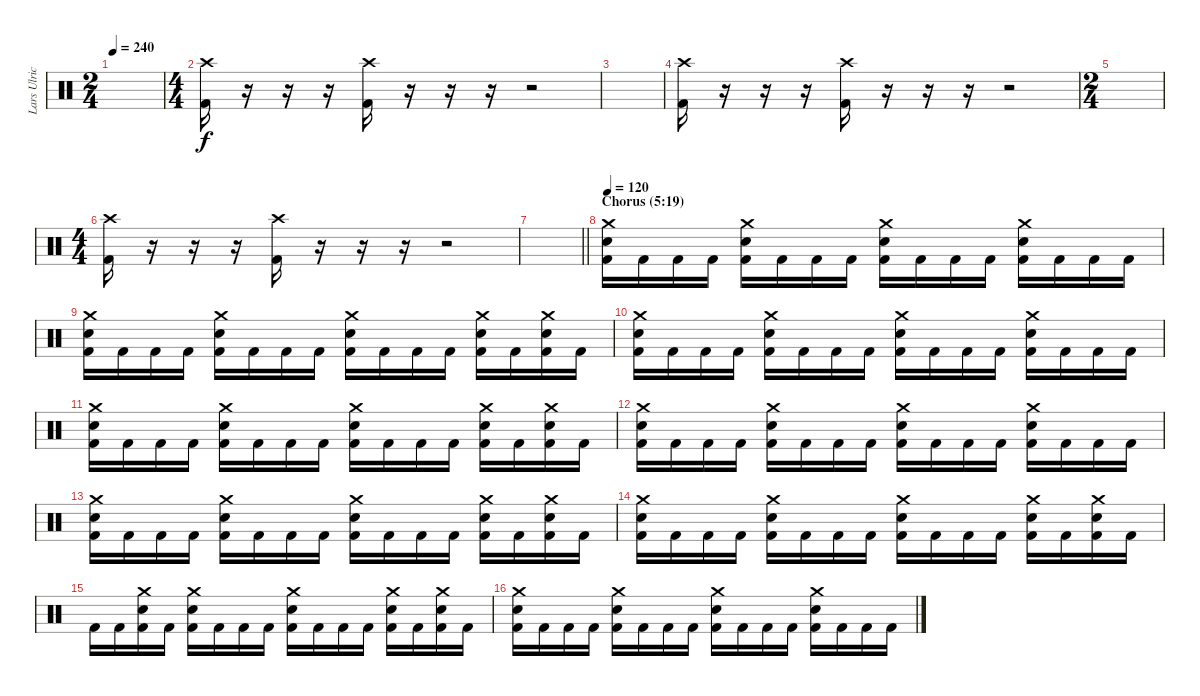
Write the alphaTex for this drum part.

\track ("Lars Ulrich" "Lars Ulric") {instrument percussion}
\staff {score}
\articulation defaults
\ts (2 4)
\tempo 240
\clef neutral
\ks c
|
\ts (4 4)
("Crash high (hit)" "Kick (hit) 2").16{volume 16} r.16 r.16 r.16{volume 0} ("Crash high (hit)" "Kick (hit) 2").16{volume 16} r.16 r.16 r.16{volume 0} r.2 |
|
("Crash high (hit)" "Kick (hit) 2").16{volume 16} r.16 r.16 r.16{volume 0} ("Crash high (hit)" "Kick (hit) 2").16{volume 16} r.16 r.16 r.16{volume 0} r.2 |
\ts (2 4)
|
\ts (4 4)
("Crash high (hit)" "Kick (hit) 2").16{volume 16} r.16 r.16 r.16{volume 0} ("Crash high (hit)" "Kick (hit) 2").16{volume 16} r.16 r.16 r.16{volume 0} r.2 |
\barLineRight lightlight
|
\section ("" "Chorus (5:19)")
\tempo 120
("Electric Snare (hit)" "Crash medium (hit)" "Kick (hit) 2").16{volume 16} "Kick (hit) 2".16 "Kick (hit) 2".16 "Kick (hit) 2".16 ("Electric Snare (hit)" "Crash medium (hit)" "Kick (hit) 2").16 "Kick (hit) 2".16 "Kick (hit) 2".16 "Kick (hit) 2".16 ("Electric Snare (hit)" "Crash medium (hit)" "Kick (hit) 2").16 "Kick (hit) 2".16 "Kick (hit) 2".16 "Kick (hit) 2".16 ("Electric Snare (hit)" "Crash medium (hit)" "Kick (hit) 2").16 "Kick (hit) 2".16 "Kick (hit) 2".16 "Kick (hit) 2".16 |
("Electric Snare (hit)" "Crash medium (hit)" "Kick (hit) 2").16 "Kick (hit) 2".16 "Kick (hit) 2".16 "Kick (hit) 2".16 ("Electric Snare (hit)" "Crash medium (hit)" "Kick (hit) 2").16 "Kick (hit) 2".16 "Kick (hit) 2".16 "Kick (hit) 2".16 ("Electric Snare (hit)" "Crash medium (hit)" "Kick (hit) 2").16 "Kick (hit) 2".16 "Kick (hit) 2".16 "Kick (hit) 2".16 ("Electric Snare (hit)" "Crash medium (hit)" "Kick (hit) 2").16 "Kick (hit) 2".16 ("Electric Snare (hit)" "Crash medium (hit)" "Kick (hit) 2").16 "Kick (hit) 2".16 |
("Electric Snare (hit)" "Crash medium (hit)" "Kick (hit) 2").16 "Kick (hit) 2".16 "Kick (hit) 2".16 "Kick (hit) 2".16 ("Electric Snare (hit)" "Crash medium (hit)" "Kick (hit) 2").16 "Kick (hit) 2".16 "Kick (hit) 2".16 "Kick (hit) 2".16 ("Electric Snare (hit)" "Crash medium (hit)" "Kick (hit) 2").16 "Kick (hit) 2".16 "Kick (hit) 2".16 "Kick (hit) 2".16 ("Electric Snare (hit)" "Crash medium (hit)" "Kick (hit) 2").16 "Kick (hit) 2".16 "Kick (hit) 2".16 "Kick (hit) 2".16 |
("Electric Snare (hit)" "Crash medium (hit)" "Kick (hit) 2").16 "Kick (hit) 2".16 "Kick (hit) 2".16 "Kick (hit) 2".16 ("Electric Snare (hit)" "Crash medium (hit)" "Kick (hit) 2").16 "Kick (hit) 2".16 "Kick (hit) 2".16 "Kick (hit) 2".16 ("Electric Snare (hit)" "Crash medium (hit)" "Kick (hit) 2").16 "Kick (hit) 2".16 "Kick (hit) 2".16 "Kick (hit) 2".16 ("Electric Snare (hit)" "Crash medium (hit)" "Kick (hit) 2").16 "Kick (hit) 2".16 ("Electric Snare (hit)" "Crash medium (hit)" "Kick (hit) 2").16 "Kick (hit) 2".16 |
("Electric Snare (hit)" "Crash medium (hit)" "Kick (hit) 2").16 "Kick (hit) 2".16 "Kick (hit) 2".16 "Kick (hit) 2".16 ("Electric Snare (hit)" "Crash medium (hit)" "Kick (hit) 2").16 "Kick (hit) 2".16 "Kick (hit) 2".16 "Kick (hit) 2".16 ("Electric Snare (hit)" "Crash medium (hit)" "Kick (hit) 2").16 "Kick (hit) 2".16 "Kick (hit) 2".16 "Kick (hit) 2".16 ("Electric Snare (hit)" "Crash medium (hit)" "Kick (hit) 2").16 "Kick (hit) 2".16 "Kick (hit) 2".16 "Kick (hit) 2".16 |
("Electric Snare (hit)" "Crash medium (hit)" "Kick (hit) 2").16 "Kick (hit) 2".16 "Kick (hit) 2".16 "Kick (hit) 2".16 ("Electric Snare (hit)" "Crash medium (hit)" "Kick (hit) 2").16 "Kick (hit) 2".16 "Kick (hit) 2".16 "Kick (hit) 2".16 ("Electric Snare (hit)" "Crash medium (hit)" "Kick (hit) 2").16 "Kick (hit) 2".16 "Kick (hit) 2".16 "Kick (hit) 2".16 ("Electric Snare (hit)" "Crash medium (hit)" "Kick (hit) 2").16 "Kick (hit) 2".16 ("Electric Snare (hit)" "Crash medium (hit)" "Kick (hit) 2").16 "Kick (hit) 2".16 |
("Electric Snare (hit)" "Crash medium (hit)" "Kick (hit) 2").16 "Kick (hit) 2".16 "Kick (hit) 2".16 "Kick (hit) 2".16 ("Electric Snare (hit)" "Crash medium (hit)" "Kick (hit) 2").16 "Kick (hit) 2".16 "Kick (hit) 2".16 "Kick (hit) 2".16 ("Electric Snare (hit)" "Crash medium (hit)" "Kick (hit) 2").16 "Kick (hit) 2".16 "Kick (hit) 2".16 "Kick (hit) 2".16 ("Electric Snare (hit)" "Crash medium (hit)" "Kick (hit) 2").16 "Kick (hit) 2".16 ("Electric Snare (hit)" "Crash medium (hit)" "Kick (hit) 2").16 "Kick (hit) 2".16 |
"Kick (hit) 2".16 "Kick (hit) 2".16 ("Electric Snare (hit)" "Crash medium (hit)" "Kick (hit) 2").16 "Kick (hit) 2".16 ("Electric Snare (hit)" "Crash medium (hit)" "Kick (hit) 2").16 "Kick (hit) 2".16 "Kick (hit) 2".16 "Kick (hit) 2".16 ("Electric Snare (hit)" "Crash medium (hit)" "Kick (hit) 2").16 "Kick (hit) 2".16 "Kick (hit) 2".16 "Kick (hit) 2".16 ("Electric Snare (hit)" "Crash medium (hit)" "Kick (hit) 2").16 "Kick (hit) 2".16 ("Electric Snare (hit)" "Crash medium (hit)" "Kick (hit) 2").16 "Kick (hit) 2".16 |
("Electric Snare (hit)" "Crash medium (hit)" "Kick (hit) 2").16 "Kick (hit) 2".16 "Kick (hit) 2".16 "Kick (hit) 2".16 ("Electric Snare (hit)" "Crash medium (hit)" "Kick (hit) 2").16 "Kick (hit) 2".16 "Kick (hit) 2".16 "Kick (hit) 2".16 ("Electric Snare (hit)" "Crash medium (hit)" "Kick (hit) 2").16 "Kick (hit) 2".16 "Kick (hit) 2".16 "Kick (hit) 2".16 ("Electric Snare (hit)" "Crash medium (hit)" "Kick (hit) 2").16 "Kick (hit) 2".16 "Kick (hit) 2".16 "Kick (hit) 2".16
